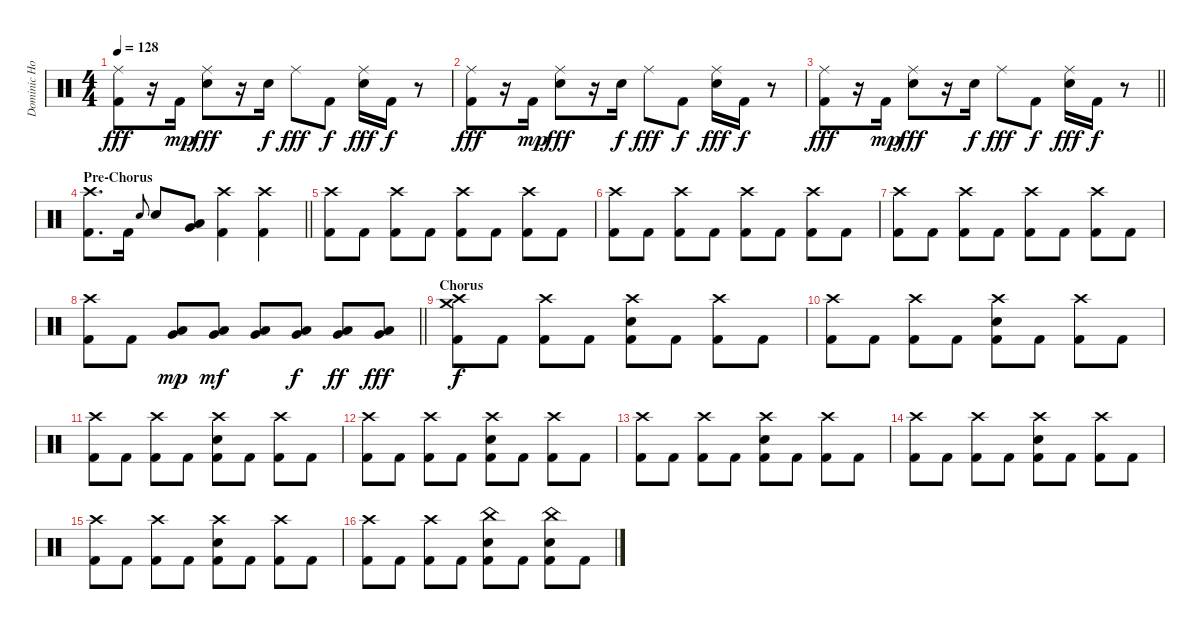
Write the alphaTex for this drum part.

\track ("Dominic Howard (Drums)" "Dominic Ho") {instrument percussion}
\staff {score}
\articulation defaults
\ts (4 4)
\tempo 128
\clef neutral
\ks c
("Ride (middle)" "Kick (hit) 2").8{dy fff} r.16 "Kick (hit) 2".16{dy mp} ("Ride (middle)" "Electric Snare (hit)").8{dy fff} r.16 "Electric Snare (hit)".16{dy f} "Ride (middle)".8{dy fff} "Kick (hit) 2".8{dy f} ("Ride (middle)" "Electric Snare (hit)").16{dy fff} "Kick (hit) 2".16{dy f} r.8 |
("Ride (middle)" "Kick (hit) 2").8{dy fff} r.16 "Kick (hit) 2".16{dy mp} ("Ride (middle)" "Electric Snare (hit)").8{dy fff} r.16 "Electric Snare (hit)".16{dy f} "Ride (middle)".8{dy fff} "Kick (hit) 2".8{dy f} ("Ride (middle)" "Electric Snare (hit)").16{dy fff} "Kick (hit) 2".16{dy f} r.8 |
\barLineRight lightlight
("Ride (middle)" "Kick (hit) 2").8{dy fff} r.16 "Kick (hit) 2".16{dy mp} ("Ride (middle)" "Electric Snare (hit)").8{dy fff} r.16 "Electric Snare (hit)".16{dy f} "Ride (middle)".8{dy fff} "Kick (hit) 2".8{dy f} ("Ride (middle)" "Electric Snare (hit)").16{dy fff} "Kick (hit) 2".16{dy f} r.8 |
\section ("" "Pre-Chorus")
\barLineRight lightlight
("Crash high (hit)" "Kick (hit) 2").8{d} "Kick (hit) 2".16 "Electric Snare (hit)".8{gr onbeat} "Electric Snare (hit)".8 ("Very Low Tom (hit)" "Low Floor Tom (hit)").8 ("Crash high (hit)" "Kick (hit) 2").4 ("Crash high (hit)" "Kick (hit) 2").4 |
("Crash high (hit)" "Kick (hit) 2").8 "Kick (hit) 2".8 ("Crash high (hit)" "Kick (hit) 2").8 "Kick (hit) 2".8 ("Crash high (hit)" "Kick (hit) 2").8 "Kick (hit) 2".8 ("Crash high (hit)" "Kick (hit) 2").8 "Kick (hit) 2".8 |
("Crash high (hit)" "Kick (hit) 2").8 "Kick (hit) 2".8 ("Crash high (hit)" "Kick (hit) 2").8 "Kick (hit) 2".8 ("Crash high (hit)" "Kick (hit) 2").8 "Kick (hit) 2".8 ("Crash high (hit)" "Kick (hit) 2").8 "Kick (hit) 2".8 |
("Crash high (hit)" "Kick (hit) 2").8 "Kick (hit) 2".8 ("Crash high (hit)" "Kick (hit) 2").8 "Kick (hit) 2".8 ("Crash high (hit)" "Kick (hit) 2").8 "Kick (hit) 2".8 ("Crash high (hit)" "Kick (hit) 2").8 "Kick (hit) 2".8 |
\barLineRight lightlight
("Crash high (hit)" "Kick (hit) 2").8 "Kick (hit) 2".8 ("Very Low Tom (hit)" "Low Floor Tom (hit)").8{dy mp} ("Very Low Tom (hit)" "Low Floor Tom (hit)").8{dy mf} ("Very Low Tom (hit)" "Low Floor Tom (hit)").8 ("Very Low Tom (hit)" "Low Floor Tom (hit)").8{dy f} ("Very Low Tom (hit)" "Low Floor Tom (hit)").8{dy ff} ("Very Low Tom (hit)" "Low Floor Tom (hit)").8{dy fff} |
\section ("" "Chorus")
("Crash medium (hit)" "Crash high (hit)" "Kick (hit) 2").8{dy f} "Kick (hit) 2".8 ("Crash high (hit)" "Kick (hit) 2").8 "Kick (hit) 2".8 ("Crash high (hit)" "Electric Snare (hit)" "Kick (hit) 2").8 "Kick (hit) 2".8 ("Crash high (hit)" "Kick (hit) 2").8 "Kick (hit) 2".8 |
("Crash high (hit)" "Kick (hit) 2").8 "Kick (hit) 2".8 ("Crash high (hit)" "Kick (hit) 2").8 "Kick (hit) 2".8 ("Crash high (hit)" "Electric Snare (hit)" "Kick (hit) 2").8 "Kick (hit) 2".8 ("Crash high (hit)" "Kick (hit) 2").8 "Kick (hit) 2".8 |
("Crash high (hit)" "Kick (hit) 2").8 "Kick (hit) 2".8 ("Crash high (hit)" "Kick (hit) 2").8 "Kick (hit) 2".8 ("Crash high (hit)" "Electric Snare (hit)" "Kick (hit) 2").8 "Kick (hit) 2".8 ("Crash high (hit)" "Kick (hit) 2").8 "Kick (hit) 2".8 |
("Crash high (hit)" "Kick (hit) 2").8 "Kick (hit) 2".8 ("Crash high (hit)" "Kick (hit) 2").8 "Kick (hit) 2".8 ("Crash high (hit)" "Electric Snare (hit)" "Kick (hit) 2").8 "Kick (hit) 2".8 ("Crash high (hit)" "Kick (hit) 2").8 "Kick (hit) 2".8 |
("Crash high (hit)" "Kick (hit) 2").8 "Kick (hit) 2".8 ("Crash high (hit)" "Kick (hit) 2").8 "Kick (hit) 2".8 ("Crash high (hit)" "Electric Snare (hit)" "Kick (hit) 2").8 "Kick (hit) 2".8 ("Crash high (hit)" "Kick (hit) 2").8 "Kick (hit) 2".8 |
("Crash high (hit)" "Kick (hit) 2").8 "Kick (hit) 2".8 ("Crash high (hit)" "Kick (hit) 2").8 "Kick (hit) 2".8 ("Crash high (hit)" "Electric Snare (hit)" "Kick (hit) 2").8 "Kick (hit) 2".8 ("Crash high (hit)" "Kick (hit) 2").8 "Kick (hit) 2".8 |
("Crash high (hit)" "Kick (hit) 2").8 "Kick (hit) 2".8 ("Crash high (hit)" "Kick (hit) 2").8 "Kick (hit) 2".8 ("Crash high (hit)" "Electric Snare (hit)" "Kick (hit) 2").8 "Kick (hit) 2".8 ("Crash high (hit)" "Kick (hit) 2").8 "Kick (hit) 2".8 |
("Crash high (hit)" "Kick (hit) 2").8 "Kick (hit) 2".8 ("Crash high (hit)" "Kick (hit) 2").8 "Kick (hit) 2".8 ("China (hit)" "Electric Snare (hit)" "Kick (hit) 2").8 "Kick (hit) 2".8 ("China (hit)" "Electric Snare (hit)" "Kick (hit) 2").8 "Kick (hit) 2".8
